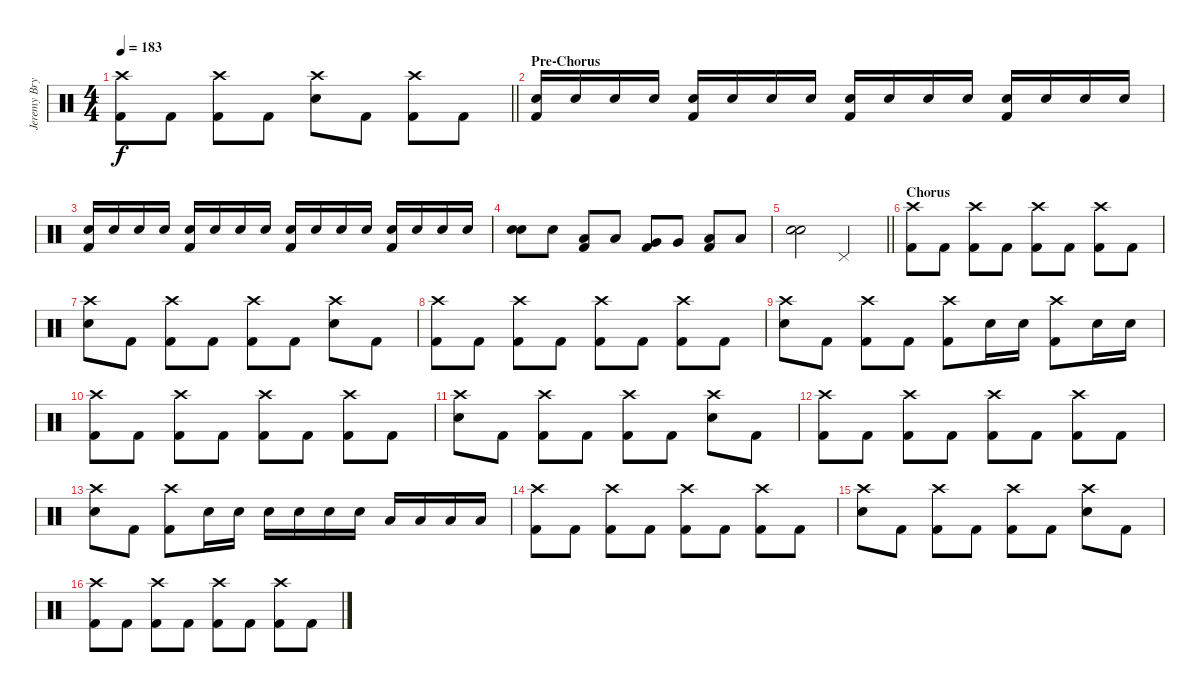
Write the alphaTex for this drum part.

\track ("Jeremy Bryan - Drums" "Jeremy Bry") {instrument percussion}
\staff {score}
\articulation defaults
\ts (4 4)
\tempo 183
\clef neutral
\barLineRight lightlight
\ks c
("Crash high (hit)" "Kick (hit) 2").8{dy f} "Kick (hit) 2".8 ("Crash high (hit)" "Kick (hit) 2").8 "Kick (hit) 2".8 ("Crash high (hit)" "Electric Snare (hit)").8 "Kick (hit) 2".8 ("Crash high (hit)" "Kick (hit) 2").8 "Kick (hit) 2".8 |
\section ("" "Pre-Chorus")
("Electric Snare (hit)" "Kick (hit) 2").16 "Electric Snare (hit)".16 "Electric Snare (hit)".16 "Electric Snare (hit)".16 ("Electric Snare (hit)" "Kick (hit) 2").16 "Electric Snare (hit)".16 "Electric Snare (hit)".16 "Electric Snare (hit)".16 ("Electric Snare (hit)" "Kick (hit) 2").16 "Electric Snare (hit)".16 "Electric Snare (hit)".16 "Electric Snare (hit)".16 ("Electric Snare (hit)" "Kick (hit) 2").16 "Electric Snare (hit)".16 "Electric Snare (hit)".16 "Electric Snare (hit)".16 |
("Electric Snare (hit)" "Kick (hit) 2").16 "Electric Snare (hit)".16 "Electric Snare (hit)".16 "Electric Snare (hit)".16 ("Electric Snare (hit)" "Kick (hit) 2").16 "Electric Snare (hit)".16 "Electric Snare (hit)".16 "Electric Snare (hit)".16 ("Electric Snare (hit)" "Kick (hit) 2").16 "Electric Snare (hit)".16 "Electric Snare (hit)".16 "Electric Snare (hit)".16 ("Electric Snare (hit)" "Kick (hit) 2").16 "Electric Snare (hit)".16 "Electric Snare (hit)".16 "Electric Snare (hit)".16 |
("Electric Snare (hit)" "Snare (hit)").8 "Electric Snare (hit)".8 ("Low Tom (hit)" "Kick (hit) 2").8 "Low Tom (hit)".8 ("Very Low Tom (hit)" "Kick (hit) 2").8 "Very Low Tom (hit)".8 ("Low Floor Tom (hit)" "Kick (hit) 2").8 "Low Floor Tom (hit)".8 |
\barLineRight lightlight
("Electric Snare (hit)" "Electric Snare (hit)").2 "Pedal Hi-Hat (hit)".2 |
\section ("" "Chorus")
("Crash high (hit)" "Kick (hit) 2").8 "Kick (hit) 2".8 ("Crash high (hit)" "Kick (hit) 2").8 "Kick (hit) 2".8 ("Crash high (hit)" "Kick (hit) 2").8 "Kick (hit) 2".8 ("Crash high (hit)" "Kick (hit) 2").8 "Kick (hit) 2".8 |
("Crash high (hit)" "Electric Snare (hit)").8 "Kick (hit) 2".8 ("Crash high (hit)" "Kick (hit) 2").8 "Kick (hit) 2".8 ("Crash high (hit)" "Kick (hit) 2").8 "Kick (hit) 2".8 ("Crash high (hit)" "Electric Snare (hit)").8 "Kick (hit) 2".8 |
("Crash high (hit)" "Kick (hit) 2").8 "Kick (hit) 2".8 ("Crash high (hit)" "Kick (hit) 2").8 "Kick (hit) 2".8 ("Crash high (hit)" "Kick (hit) 2").8 "Kick (hit) 2".8 ("Crash high (hit)" "Kick (hit) 2").8 "Kick (hit) 2".8 |
("Crash high (hit)" "Electric Snare (hit)").8 "Kick (hit) 2".8 ("Crash high (hit)" "Kick (hit) 2").8 "Kick (hit) 2".8 ("Crash high (hit)" "Kick (hit) 2").8 "Electric Snare (hit)".16 "Electric Snare (hit)".16 ("Crash high (hit)" "Kick (hit) 2").8 "Electric Snare (hit)".16 "Electric Snare (hit)".16 |
("Crash high (hit)" "Kick (hit) 2").8 "Kick (hit) 2".8 ("Crash high (hit)" "Kick (hit) 2").8 "Kick (hit) 2".8 ("Crash high (hit)" "Kick (hit) 2").8 "Kick (hit) 2".8 ("Crash high (hit)" "Kick (hit) 2").8 "Kick (hit) 2".8 |
("Crash high (hit)" "Electric Snare (hit)").8 "Kick (hit) 2".8 ("Crash high (hit)" "Kick (hit) 2").8 "Kick (hit) 2".8 ("Crash high (hit)" "Kick (hit) 2").8 "Kick (hit) 2".8 ("Crash high (hit)" "Electric Snare (hit)").8 "Kick (hit) 2".8 |
("Crash high (hit)" "Kick (hit) 2").8 "Kick (hit) 2".8 ("Crash high (hit)" "Kick (hit) 2").8 "Kick (hit) 2".8 ("Crash high (hit)" "Kick (hit) 2").8 "Kick (hit) 2".8 ("Crash high (hit)" "Kick (hit) 2").8 "Kick (hit) 2".8 |
("Crash high (hit)" "Electric Snare (hit)").8 "Kick (hit) 2".8 ("Crash high (hit)" "Kick (hit) 2").8 "Electric Snare (hit)".16 "Electric Snare (hit)".16 "Electric Snare (hit)".16 "Electric Snare (hit)".16 "Electric Snare (hit)".16 "Electric Snare (hit)".16 "Low Tom (hit)".16 "Low Tom (hit)".16 "Low Tom (hit)".16 "Low Tom (hit)".16 |
("Crash high (hit)" "Kick (hit) 2").8 "Kick (hit) 2".8 ("Crash high (hit)" "Kick (hit) 2").8 "Kick (hit) 2".8 ("Crash high (hit)" "Kick (hit) 2").8 "Kick (hit) 2".8 ("Crash high (hit)" "Kick (hit) 2").8 "Kick (hit) 2".8 |
("Crash high (hit)" "Electric Snare (hit)").8 "Kick (hit) 2".8 ("Crash high (hit)" "Kick (hit) 2").8 "Kick (hit) 2".8 ("Crash high (hit)" "Kick (hit) 2").8 "Kick (hit) 2".8 ("Crash high (hit)" "Electric Snare (hit)").8 "Kick (hit) 2".8 |
("Crash high (hit)" "Kick (hit) 2").8 "Kick (hit) 2".8 ("Crash high (hit)" "Kick (hit) 2").8 "Kick (hit) 2".8 ("Crash high (hit)" "Kick (hit) 2").8 "Kick (hit) 2".8 ("Crash high (hit)" "Kick (hit) 2").8 "Kick (hit) 2".8
